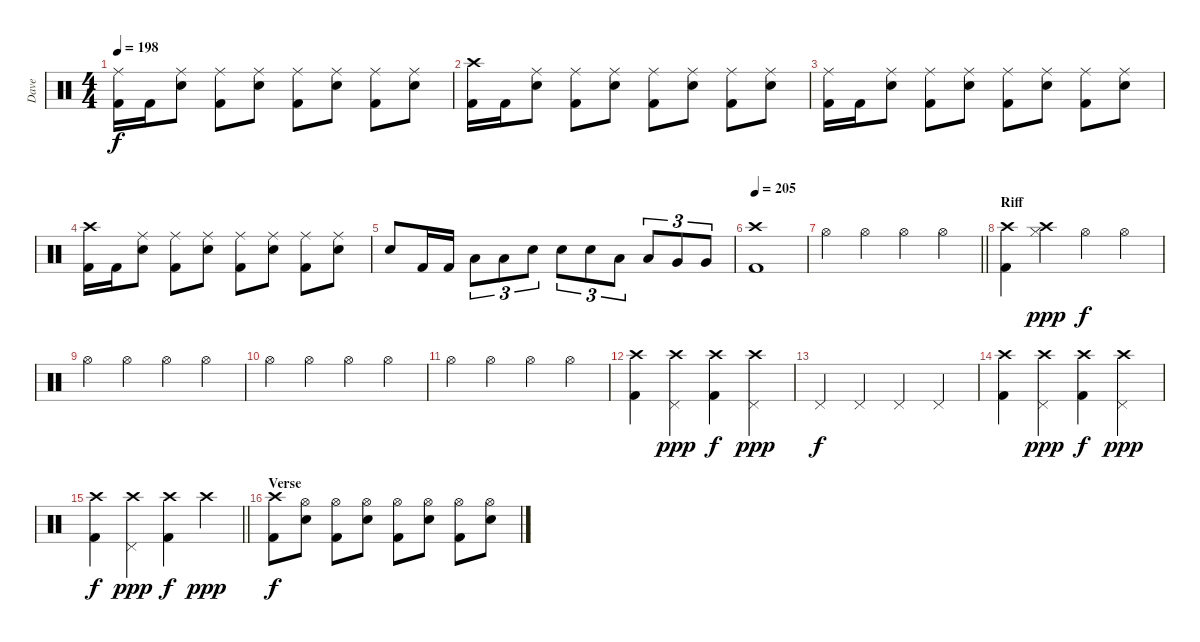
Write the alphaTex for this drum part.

\track ("Dave" "Dave") {instrument percussion}
\staff {score}
\articulation defaults
\ts (4 4)
\tempo 198
\clef neutral
\ks c
("Kick (hit) 2" "Ride (middle)").16{dy f} "Kick (hit) 2".16 ("Electric Snare (hit)" "Ride (middle)").8 ("Kick (hit) 2" "Ride (middle)").8 ("Electric Snare (hit)" "Ride (middle)").8 ("Kick (hit) 2" "Ride (middle)").8 ("Electric Snare (hit)" "Ride (middle)").8 ("Kick (hit) 2" "Ride (middle)").8 ("Electric Snare (hit)" "Ride (middle)").8 |
("Kick (hit) 2" "Crash high (hit)").16 "Kick (hit) 2".16 ("Electric Snare (hit)" "Ride (middle)").8 ("Kick (hit) 2" "Ride (middle)").8 ("Electric Snare (hit)" "Ride (middle)").8 ("Kick (hit) 2" "Ride (middle)").8 ("Electric Snare (hit)" "Ride (middle)").8 ("Kick (hit) 2" "Ride (middle)").8 ("Electric Snare (hit)" "Ride (middle)").8 |
("Kick (hit) 2" "Ride (middle)").16 "Kick (hit) 2".16 ("Electric Snare (hit)" "Ride (middle)").8 ("Kick (hit) 2" "Ride (middle)").8 ("Electric Snare (hit)" "Ride (middle)").8 ("Kick (hit) 2" "Ride (middle)").8 ("Electric Snare (hit)" "Ride (middle)").8 ("Kick (hit) 2" "Ride (middle)").8 ("Electric Snare (hit)" "Ride (middle)").8 |
("Kick (hit) 2" "Crash high (hit)").16 "Kick (hit) 2".16 ("Electric Snare (hit)" "Ride (middle)").8 ("Kick (hit) 2" "Ride (middle)").8 ("Electric Snare (hit)" "Ride (middle)").8 ("Kick (hit) 2" "Ride (middle)").8 ("Electric Snare (hit)" "Ride (middle)").8 ("Kick (hit) 2" "Ride (middle)").8 ("Electric Snare (hit)" "Ride (middle)").8 |
"Electric Snare (hit)".8 "Kick (hit) 2".16 "Kick (hit) 2".16 "Low Tom (hit)".8{tu (3 2)} "Low Tom (hit)".8{tu (3 2)} "Electric Snare (hit)".8{tu (3 2)} "Electric Snare (hit)".8{tu (3 2)} "Electric Snare (hit)".8{tu (3 2)} "Low Tom (hit)".8{tu (3 2)} "Low Tom (hit)".8{tu (3 2)} "Very Low Tom (hit)".8{tu (3 2)} "Very Low Tom (hit)".8{tu (3 2)} |
\tempo 205
("Crash high (hit)" "Kick (hit) 2").1 |
\barLineRight lightlight "Hi-Hat (open)".4 "Hi-Hat (open)".4 "Hi-Hat (open)".4 "Hi-Hat (open)".4
|
\section ("" "Riff")
("Kick (hit) 2" "Crash high (hit)").4 ("Crash high (hit)" "Hi-Hat (closed)").4{dy ppp} "Hi-Hat (open)".4{dy f} "Hi-Hat (open)".4 |
"Hi-Hat (open)".4 "Hi-Hat (open)".4 "Hi-Hat (open)".4 "Hi-Hat (open)".4 |
"Hi-Hat (open)".4 "Hi-Hat (open)".4 "Hi-Hat (open)".4 "Hi-Hat (open)".4 |
"Hi-Hat (open)".4 "Hi-Hat (open)".4 "Hi-Hat (open)".4 "Hi-Hat (open)".4 |
("Crash high (hit)" "Kick (hit) 2").4 ("Crash high (hit)" "Pedal Hi-Hat (hit)").4{dy ppp} ("Crash high (hit)" "Kick (hit) 2").4{dy f} ("Crash high (hit)" "Pedal Hi-Hat (hit)").4{dy ppp} |
"Pedal Hi-Hat (hit)".4{dy f} "Pedal Hi-Hat (hit)".4 "Pedal Hi-Hat (hit)".4 "Pedal Hi-Hat (hit)".4 |
("Crash high (hit)" "Kick (hit) 2").4 ("Crash high (hit)" "Pedal Hi-Hat (hit)").4{dy ppp} ("Crash high (hit)" "Kick (hit) 2").4{dy f} ("Crash high (hit)" "Pedal Hi-Hat (hit)").4{dy ppp} |
\barLineRight lightlight
("Crash high (hit)" "Kick (hit) 2").4{dy f} ("Crash high (hit)" "Pedal Hi-Hat (hit)").4{dy ppp} ("Crash high (hit)" "Kick (hit) 2").4{dy f} "Crash high (hit)".4{dy ppp} |
\section ("" "Verse")
("Crash high (hit)" "Kick (hit) 2").8{dy f} ("Electric Snare (hit)" "Hi-Hat (open)").8 ("Kick (hit) 2" "Hi-Hat (open)").8 ("Electric Snare (hit)" "Hi-Hat (open)").8 ("Kick (hit) 2" "Hi-Hat (open)").8 ("Electric Snare (hit)" "Hi-Hat (open)").8 ("Kick (hit) 2" "Hi-Hat (open)").8 ("Electric Snare (hit)" "Hi-Hat (open)").8
